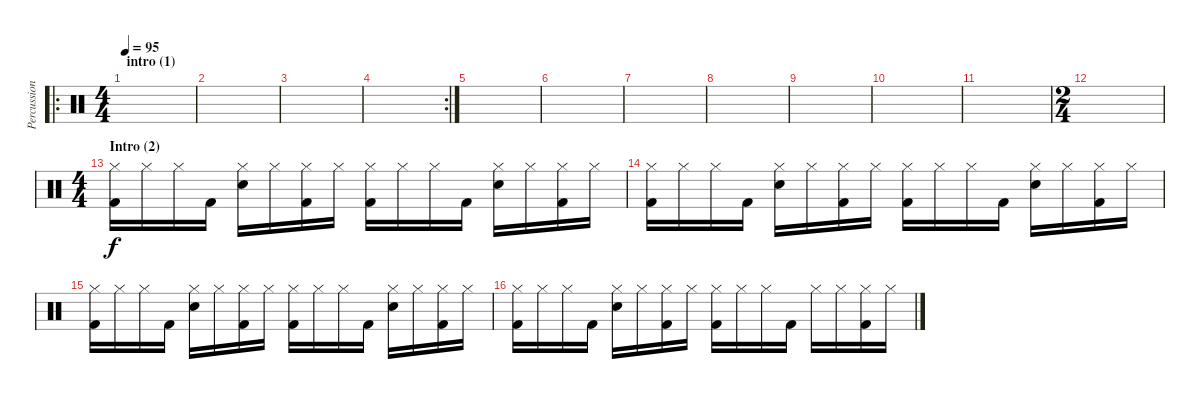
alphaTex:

\track ("Percussion" "Percussion") {instrument percussion}
\staff {score}
\articulation defaults
\ro
\ts (4 4)
\section ("" "intro (1)")
\tempo 95
\clef neutral
\ks c
|
|
|
\rc 2
|
|
|
|
|
|
|
|
\ts (2 4)
|
\ts (4 4)
\section ("" "Intro (2)")
("Hi-Hat (closed)" "Kick (hit) 2").16 "Hi-Hat (closed)"{x}.16 "Hi-Hat (closed)".16 "Kick (hit) 2".16 ("Hi-Hat (closed)" "Snare (hit) 2").16 "Hi-Hat (closed)"{x}.16 ("Hi-Hat (closed)" "Kick (hit) 2").16 "Hi-Hat (closed)"{x}.16 ("Hi-Hat (closed)" "Kick (hit) 2").16 "Hi-Hat (closed)"{x}.16 "Hi-Hat (closed)".16 "Kick (hit) 2".16 ("Hi-Hat (closed)" "Snare (hit) 2").16 "Hi-Hat (closed)"{x}.16 ("Hi-Hat (closed)" "Kick (hit) 2").16 "Hi-Hat (closed)"{x}.16 |
("Hi-Hat (closed)" "Kick (hit) 2").16 "Hi-Hat (closed)"{x}.16 "Hi-Hat (closed)".16 "Kick (hit) 2".16 ("Hi-Hat (closed)" "Snare (hit) 2").16 "Hi-Hat (closed)"{x}.16 ("Hi-Hat (closed)" "Kick (hit) 2").16 "Hi-Hat (closed)"{x}.16 ("Hi-Hat (closed)" "Kick (hit) 2").16 "Hi-Hat (closed)"{x}.16 "Hi-Hat (closed)".16 "Kick (hit) 2".16 ("Hi-Hat (closed)" "Snare (hit) 2").16 "Hi-Hat (closed)"{x}.16 ("Hi-Hat (closed)" "Kick (hit) 2").16 "Hi-Hat (closed)"{x}.16 |
("Hi-Hat (closed)" "Kick (hit) 2").16 "Hi-Hat (closed)"{x}.16 "Hi-Hat (closed)".16 "Kick (hit) 2".16 ("Hi-Hat (closed)" "Snare (hit) 2").16 "Hi-Hat (closed)"{x}.16 ("Hi-Hat (closed)" "Kick (hit) 2").16 "Hi-Hat (closed)"{x}.16 ("Hi-Hat (closed)" "Kick (hit) 2").16 "Hi-Hat (closed)"{x}.16 "Hi-Hat (closed)".16 "Kick (hit) 2".16 ("Hi-Hat (closed)" "Snare (hit) 2").16 "Hi-Hat (closed)"{x}.16 ("Hi-Hat (closed)" "Kick (hit) 2").16 "Hi-Hat (closed)"{x}.16 |
("Hi-Hat (closed)" "Kick (hit) 2").16 "Hi-Hat (closed)"{x}.16 "Hi-Hat (closed)".16 "Kick (hit) 2".16 ("Hi-Hat (closed)" "Snare (hit) 2").16 "Hi-Hat (closed)"{x}.16 ("Hi-Hat (closed)" "Kick (hit) 2").16 "Hi-Hat (closed)"{x}.16 ("Hi-Hat (closed)" "Kick (hit) 2").16 "Hi-Hat (closed)"{x}.16 "Hi-Hat (closed)".16 "Kick (hit) 2".16 "Hi-Hat (closed)".16 "Hi-Hat (closed)"{x}.16 ("Hi-Hat (closed)" "Kick (hit) 2").16 "Hi-Hat (closed)"{x}.16
